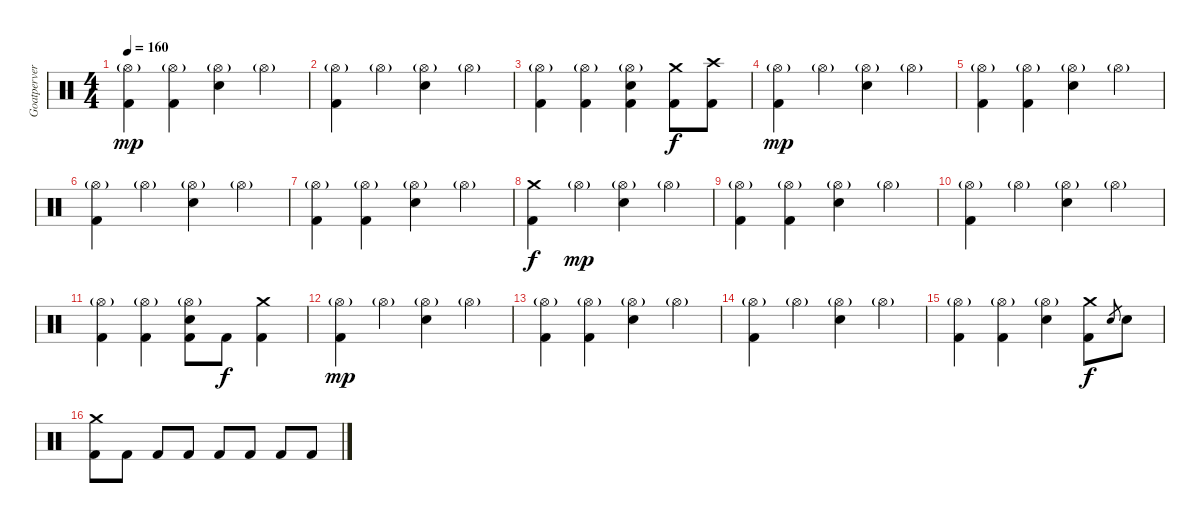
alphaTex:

\track ("Goatpervertor " "Goatperver") {instrument percussion}
\staff {score}
\articulation defaults
\ts (4 4)
\tempo 160
\clef neutral
\ks c
("Hi-Hat (open)"{g} "Kick (hit) 2").4{dy mp} ("Hi-Hat (open)"{g} "Kick (hit) 2").4 ("Hi-Hat (open)"{g} "Electric Snare (hit)").4 "Hi-Hat (open)"{g}.4 |
("Hi-Hat (open)"{g} "Kick (hit) 2").4 "Hi-Hat (open)"{g}.4 ("Hi-Hat (open)"{g} "Electric Snare (hit)").4 "Hi-Hat (open)"{g}.4 |
("Hi-Hat (open)"{g} "Kick (hit) 2").4 ("Hi-Hat (open)"{g} "Kick (hit) 2").4 ("Hi-Hat (open)"{g} "Electric Snare (hit)" "Kick (hit) 2").4 ("Crash medium (hit)" "Kick (hit) 2").8{dy f} ("Crash high (hit)" "Kick (hit) 2").8 |
("Hi-Hat (open)"{g} "Kick (hit) 2").4{dy mp} "Hi-Hat (open)"{g}.4 ("Hi-Hat (open)"{g} "Electric Snare (hit)").4 "Hi-Hat (open)"{g}.4 |
("Hi-Hat (open)"{g} "Kick (hit) 2").4 ("Hi-Hat (open)"{g} "Kick (hit) 2").4 ("Hi-Hat (open)"{g} "Electric Snare (hit)").4 "Hi-Hat (open)"{g}.4 |
("Hi-Hat (open)"{g} "Kick (hit) 2").4 "Hi-Hat (open)"{g}.4 ("Hi-Hat (open)"{g} "Electric Snare (hit)").4 "Hi-Hat (open)"{g}.4 |
("Hi-Hat (open)"{g} "Kick (hit) 2").4 ("Hi-Hat (open)"{g} "Kick (hit) 2").4 ("Hi-Hat (open)"{g} "Electric Snare (hit)").4 "Hi-Hat (open)"{g}.4 |
("Crash medium (hit)" "Kick (hit) 2").4{dy f} "Hi-Hat (open)"{g}.4{dy mp} ("Hi-Hat (open)"{g} "Electric Snare (hit)").4 "Hi-Hat (open)"{g}.4 |
("Hi-Hat (open)"{g} "Kick (hit) 2").4 ("Hi-Hat (open)"{g} "Kick (hit) 2").4 ("Hi-Hat (open)"{g} "Electric Snare (hit)").4 "Hi-Hat (open)"{g}.4 |
("Hi-Hat (open)"{g} "Kick (hit) 2").4 "Hi-Hat (open)"{g}.4 ("Hi-Hat (open)"{g} "Electric Snare (hit)").4 "Hi-Hat (open)"{g}.4 |
("Hi-Hat (open)"{g} "Kick (hit) 2").4 ("Hi-Hat (open)"{g} "Kick (hit) 2").4 ("Hi-Hat (open)"{g} "Electric Snare (hit)" "Kick (hit) 2").8 "Kick (hit) 2".8{dy f} ("Crash medium (hit)" "Kick (hit) 2").4 |
("Hi-Hat (open)"{g} "Kick (hit) 2").4{dy mp} "Hi-Hat (open)"{g}.4 ("Hi-Hat (open)"{g} "Electric Snare (hit)").4 "Hi-Hat (open)"{g}.4 |
("Hi-Hat (open)"{g} "Kick (hit) 2").4 ("Hi-Hat (open)"{g} "Kick (hit) 2").4 ("Hi-Hat (open)"{g} "Electric Snare (hit)").4 "Hi-Hat (open)"{g}.4 |
("Hi-Hat (open)"{g} "Kick (hit) 2").4 "Hi-Hat (open)"{g}.4 ("Hi-Hat (open)"{g} "Electric Snare (hit)").4 "Hi-Hat (open)"{g}.4 |
("Hi-Hat (open)"{g} "Kick (hit) 2").4 ("Hi-Hat (open)"{g} "Kick (hit) 2").4 ("Hi-Hat (open)"{g} "Electric Snare (hit)").4 ("Crash medium (hit)" "Kick (hit) 2").8{dy f} "Electric Snare (hit)".8{gr} "Electric Snare (hit)".8 |
("Crash medium (hit)" "Kick (hit) 2").8 "Kick (hit) 2".8 "Kick (hit) 2".8 "Kick (hit) 2".8 "Kick (hit) 2".8 "Kick (hit) 2".8 "Kick (hit) 2".8 "Kick (hit) 2".8
